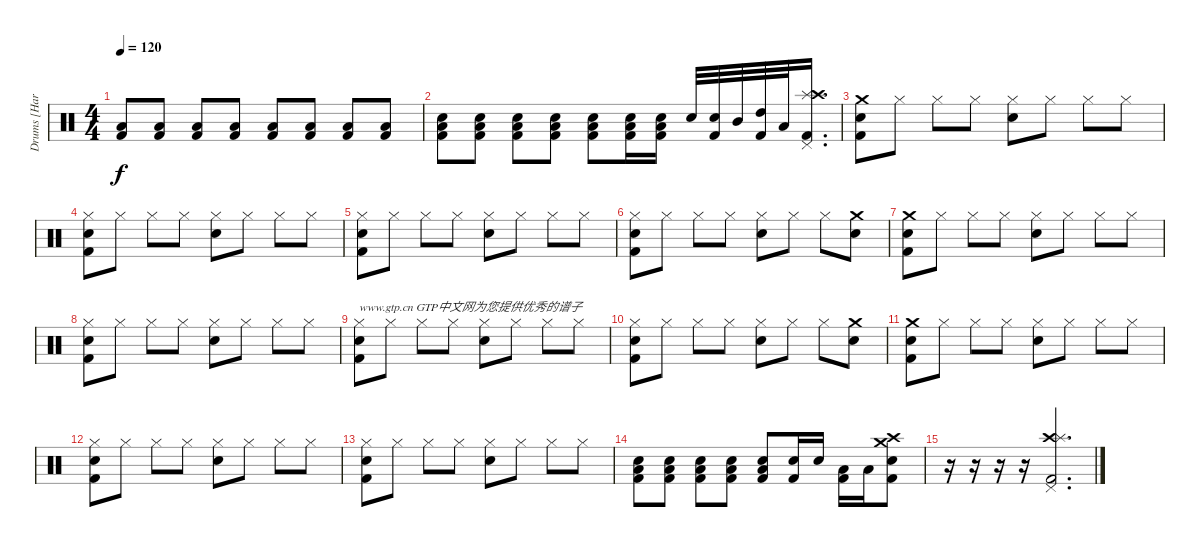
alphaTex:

\track ("Drums [Harry]" "Drums [Har") {instrument percussion}
\staff {score}
\articulation defaults
\ts (4 4)
\tempo 120
\clef neutral
\ks c
("Low Floor Tom (hit)" "Kick (hit) 2").8{dy f} ("Low Floor Tom (hit)" "Kick (hit) 2").8 ("Low Floor Tom (hit)" "Kick (hit) 2").8 ("Low Floor Tom (hit)" "Kick (hit) 2").8 ("Low Floor Tom (hit)" "Kick (hit) 2").8 ("Low Floor Tom (hit)" "Kick (hit) 2").8 ("Low Floor Tom (hit)" "Kick (hit) 2").8 ("Low Floor Tom (hit)" "Kick (hit) 2").8 |
("Snare (hit) 2" "Low Floor Tom (hit)" "Kick (hit) 2").8 ("Snare (hit) 2" "Low Floor Tom (hit)" "Kick (hit) 2").8 ("Snare (hit) 2" "Low Floor Tom (hit)" "Kick (hit) 2").8 ("Snare (hit) 2" "Low Floor Tom (hit)" "Kick (hit) 2").8 ("Snare (hit) 2" "Low Floor Tom (hit)" "Kick (hit) 2").8 ("Snare (hit) 2" "Low Floor Tom (hit)" "Kick (hit) 2").16 ("Snare (hit) 2" "Low Floor Tom (hit)" "Kick (hit) 2").16 "Snare (hit) 2".32 ("Snare (hit) 2" "Kick (hit) 2").32 "Mid Tom (hit)".32 ("High Tom (hit)" "Kick (hit) 2").32 "Low Tom (hit)".32 ("Splash (hit)" "Crash high (hit)" "Pedal Hi-Hat (hit)" "Kick (hit) 2").16{d} |
("Crash medium (hit)" "Snare (hit) 2" "Kick (hit) 2").8 "Hi-Hat (closed)".8 "Hi-Hat (closed)".8 "Hi-Hat (closed)".8 ("Snare (hit) 2" "Hi-Hat (closed)").8 "Hi-Hat (closed)".8 "Hi-Hat (closed)".8 "Hi-Hat (closed)".8 |
("Snare (hit) 2" "Hi-Hat (closed)" "Kick (hit) 2").8 "Hi-Hat (closed)".8 "Hi-Hat (closed)".8 "Hi-Hat (closed)".8 ("Snare (hit) 2" "Hi-Hat (closed)").8 "Hi-Hat (closed)".8 "Hi-Hat (closed)".8 "Hi-Hat (closed)".8 |
("Snare (hit) 2" "Hi-Hat (closed)" "Kick (hit) 2").8 "Hi-Hat (closed)".8 "Hi-Hat (closed)".8 "Hi-Hat (closed)".8 ("Snare (hit) 2" "Hi-Hat (closed)").8 "Hi-Hat (closed)".8 "Hi-Hat (closed)".8 "Hi-Hat (closed)".8 |
("Snare (hit) 2" "Hi-Hat (closed)" "Kick (hit) 2").8 "Hi-Hat (closed)".8 "Hi-Hat (closed)".8 "Hi-Hat (closed)".8 ("Snare (hit) 2" "Hi-Hat (closed)").8 "Hi-Hat (closed)".8 "Hi-Hat (closed)".8 ("Crash medium (hit)" "Snare (hit) 2").8 |
("Crash medium (hit)" "Snare (hit) 2" "Kick (hit) 2").8 "Hi-Hat (closed)".8 "Hi-Hat (closed)".8 "Hi-Hat (closed)".8 ("Snare (hit) 2" "Hi-Hat (closed)").8 "Hi-Hat (closed)".8 "Hi-Hat (closed)".8 "Hi-Hat (closed)".8 |
("Snare (hit) 2" "Hi-Hat (closed)" "Kick (hit) 2").8 "Hi-Hat (closed)".8 "Hi-Hat (closed)".8 "Hi-Hat (closed)".8 ("Snare (hit) 2" "Hi-Hat (closed)").8 "Hi-Hat (closed)".8 "Hi-Hat (closed)".8 "Hi-Hat (closed)".8 |
("Snare (hit) 2" "Hi-Hat (closed)" "Kick (hit) 2").8{txt "www.gtp.cn GTP中文网为您提供优秀的谱子"} "Hi-Hat (closed)".8 "Hi-Hat (closed)".8 "Hi-Hat (closed)".8 ("Snare (hit) 2" "Hi-Hat (closed)").8 "Hi-Hat (closed)".8 "Hi-Hat (closed)".8 "Hi-Hat (closed)".8 |
("Snare (hit) 2" "Hi-Hat (closed)" "Kick (hit) 2").8 "Hi-Hat (closed)".8 "Hi-Hat (closed)".8 "Hi-Hat (closed)".8 ("Snare (hit) 2" "Hi-Hat (closed)").8 "Hi-Hat (closed)".8 "Hi-Hat (closed)".8 ("Crash medium (hit)" "Snare (hit) 2").8 |
("Crash medium (hit)" "Snare (hit) 2" "Kick (hit) 2").8 "Hi-Hat (closed)".8 "Hi-Hat (closed)".8 "Hi-Hat (closed)".8 ("Snare (hit) 2" "Hi-Hat (closed)").8 "Hi-Hat (closed)".8 "Hi-Hat (closed)".8 "Hi-Hat (closed)".8 |
("Snare (hit) 2" "Hi-Hat (closed)" "Kick (hit) 2").8 "Hi-Hat (closed)".8 "Hi-Hat (closed)".8 "Hi-Hat (closed)".8 ("Snare (hit) 2" "Hi-Hat (closed)").8 "Hi-Hat (closed)".8 "Hi-Hat (closed)".8 "Hi-Hat (closed)".8 |
("Snare (hit) 2" "Hi-Hat (closed)" "Kick (hit) 2").8 "Hi-Hat (closed)".8 "Hi-Hat (closed)".8 "Hi-Hat (closed)".8 ("Snare (hit) 2" "Hi-Hat (closed)").8 "Hi-Hat (closed)".8 "Hi-Hat (closed)".8 "Hi-Hat (closed)".8 |
("Snare (hit) 2" "Low Floor Tom (hit)" "Kick (hit) 2").8 ("Snare (hit) 2" "Low Floor Tom (hit)" "Kick (hit) 2").8 ("Snare (hit) 2" "Low Floor Tom (hit)" "Kick (hit) 2").8 ("Snare (hit) 2" "Low Floor Tom (hit)" "Kick (hit) 2").8 ("Snare (hit) 2" "Low Floor Tom (hit)" "Kick (hit) 2").8 ("Snare (hit) 2" "Kick (hit) 2").16 "Snare (hit) 2".16 ("Low Tom (hit)" "Kick (hit) 2").16 "Low Tom (hit)".16 ("Crash medium (hit)" "Crash high (hit)" "Snare (hit) 2" "Kick (hit) 2").8 |
r.16 r.16 r.16 r.16 ("Crash high (hit)" "Splash (hit)" "Pedal Hi-Hat (hit)" "Kick (hit) 2").2{d}
